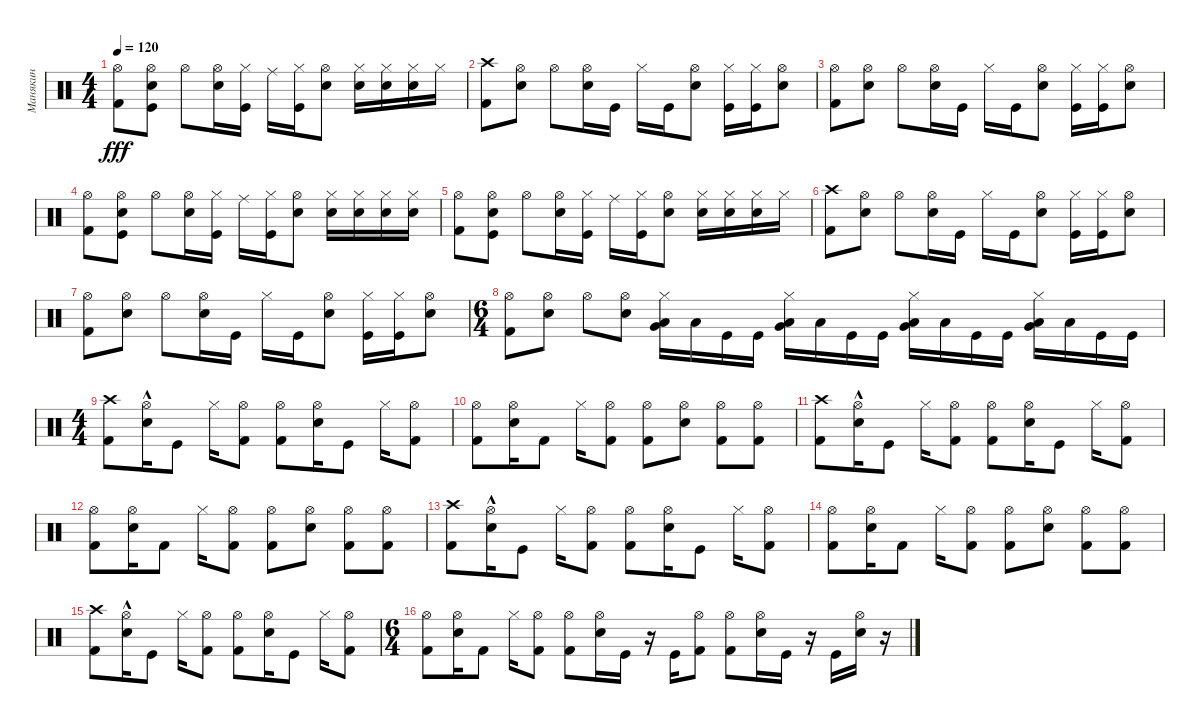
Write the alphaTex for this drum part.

\track ("Манякин" "Манякин") {instrument percussion}
\staff {score}
\articulation defaults
\ts (4 4)
\tempo 120
\clef neutral
\ks c
("Hi-Hat (open)" "Kick (hit) 2").8{dy fff} ("Hi-Hat (open)" "Snare (hit) 2" "Kick (hit)").8 "Hi-Hat (open)".8 ("Snare (hit) 2" "Hi-Hat (open)").16 ("Hi-Hat (closed)" "Kick (hit)").16 "Ride (middle)".16 ("Hi-Hat (closed)" "Kick (hit)").16 ("Hi-Hat (open)" "Snare (hit) 2").8 ("Hi-Hat (closed)" "Snare (hit) 2").16 ("Hi-Hat (closed)" "Snare (hit) 2").16 ("Hi-Hat (closed)" "Snare (hit) 2").16 "Hi-Hat (closed)".16 |
("Crash high (hit)" "Kick (hit) 2").8 ("Hi-Hat (open)" "Snare (hit) 2").8 "Hi-Hat (open)".8 ("Hi-Hat (open)" "Snare (hit) 2").16 "Kick (hit)".16 "Hi-Hat (closed)".16 "Kick (hit)".16 ("Hi-Hat (open)" "Snare (hit) 2").8 ("Hi-Hat (closed)" "Kick (hit)").16 ("Hi-Hat (closed)" "Kick (hit)").16 ("Hi-Hat (open)" "Snare (hit) 2").8 |
("Hi-Hat (open)" "Kick (hit) 2").8 ("Hi-Hat (open)" "Snare (hit) 2").8 "Hi-Hat (open)".8 ("Hi-Hat (open)" "Snare (hit) 2").16 "Kick (hit)".16 "Hi-Hat (closed)".16 "Kick (hit)".16 ("Hi-Hat (open)" "Snare (hit) 2").8 ("Hi-Hat (closed)" "Kick (hit)").16 ("Hi-Hat (closed)" "Kick (hit)").16 ("Hi-Hat (open)" "Snare (hit) 2").8 |
("Hi-Hat (open)" "Kick (hit) 2").8 ("Hi-Hat (open)" "Snare (hit) 2" "Kick (hit)").8 "Hi-Hat (open)".8 ("Snare (hit) 2" "Hi-Hat (open)").16 ("Hi-Hat (closed)" "Kick (hit)").16 "Ride (middle)".16 ("Hi-Hat (closed)" "Kick (hit)").16 ("Hi-Hat (open)" "Snare (hit) 2").8 ("Hi-Hat (closed)" "Snare (hit) 2").16 ("Hi-Hat (closed)" "Snare (hit) 2").16 ("Hi-Hat (closed)" "Snare (hit) 2").16 ("Hi-Hat (closed)" "Snare (hit) 2").16 |
("Hi-Hat (open)" "Kick (hit) 2").8 ("Hi-Hat (open)" "Snare (hit) 2" "Kick (hit)").8 "Hi-Hat (open)".8 ("Snare (hit) 2" "Hi-Hat (open)").16 ("Hi-Hat (closed)" "Kick (hit)").16 "Ride (middle)".16 ("Hi-Hat (closed)" "Kick (hit)").16 ("Hi-Hat (open)" "Snare (hit) 2").8 ("Hi-Hat (closed)" "Snare (hit) 2").16 ("Hi-Hat (closed)" "Snare (hit) 2").16 ("Hi-Hat (closed)" "Snare (hit) 2").16 "Hi-Hat (closed)".16 |
("Crash high (hit)" "Kick (hit) 2").8 ("Hi-Hat (open)" "Snare (hit) 2").8 "Hi-Hat (open)".8 ("Hi-Hat (open)" "Snare (hit) 2").16 "Kick (hit)".16 "Hi-Hat (closed)".16 "Kick (hit)".16 ("Hi-Hat (open)" "Snare (hit) 2").8 ("Hi-Hat (closed)" "Kick (hit)").16 ("Hi-Hat (closed)" "Kick (hit)").16 ("Hi-Hat (open)" "Snare (hit) 2").8 |
("Hi-Hat (open)" "Kick (hit) 2").8 ("Hi-Hat (open)" "Snare (hit) 2").8 "Hi-Hat (open)".8 ("Hi-Hat (open)" "Snare (hit) 2").16 "Kick (hit)".16 "Hi-Hat (closed)".16 "Kick (hit)".16 ("Hi-Hat (open)" "Snare (hit) 2").8 ("Hi-Hat (closed)" "Kick (hit)").16 ("Hi-Hat (closed)" "Kick (hit)").16 ("Hi-Hat (open)" "Snare (hit) 2").8 |
\ts (6 4)
("Hi-Hat (open)" "Kick (hit) 2").8 ("Hi-Hat (open)" "Snare (hit) 2").8 "Hi-Hat (open)".8 ("Hi-Hat (open)" "Snare (hit) 2").8 ("Hi-Hat (closed)" "Low Floor Tom (hit)" "Very Low Tom (hit)").16 "Low Floor Tom (hit)".16 "Kick (hit)".16 "Kick (hit)".16 ("Hi-Hat (closed)" "Low Floor Tom (hit)" "Very Low Tom (hit)").16 "Low Floor Tom (hit)".16 "Kick (hit)".16 "Kick (hit)".16 ("Hi-Hat (closed)" "Low Tom (hit)" "Very Low Tom (hit)").16 "Low Floor Tom (hit)".16 "Kick (hit)".16 "Kick (hit)".16 ("Hi-Hat (closed)" "Very Low Tom (hit)" "Low Tom (hit)").16 "Low Floor Tom (hit)".16 "Kick (hit)".16 "Kick (hit)".16 |
\ts (4 4)
("Crash high (hit)" "Kick (hit) 2").8 ("Hi-Hat (open)"{hac} "Snare (hit) 2").16 "Kick (hit)".8 "Hi-Hat (closed)".16 ("Hi-Hat (open)" "Kick (hit) 2").8 ("Hi-Hat (open)" "Kick (hit) 2").8 ("Hi-Hat (open)" "Snare (hit) 2").16 "Kick (hit)".8 "Hi-Hat (closed)".16 ("Kick (hit) 2" "Hi-Hat (open)").8 |
("Hi-Hat (open)" "Kick (hit) 2").8 ("Hi-Hat (open)" "Snare (hit) 2").16 "Kick (hit) 2".8 "Hi-Hat (closed)".16 ("Hi-Hat (open)" "Kick (hit) 2").8 ("Kick (hit) 2" "Hi-Hat (open)").8 ("Hi-Hat (open)" "Snare (hit) 2").8 ("Hi-Hat (open)" "Kick (hit) 2").8 ("Hi-Hat (open)" "Kick (hit) 2").8 |
("Crash high (hit)" "Kick (hit) 2").8 ("Hi-Hat (open)"{hac} "Snare (hit) 2").16 "Kick (hit)".8 "Hi-Hat (closed)".16 ("Hi-Hat (open)" "Kick (hit) 2").8 ("Hi-Hat (open)" "Kick (hit) 2").8 ("Hi-Hat (open)" "Snare (hit) 2").16 "Kick (hit)".8 "Hi-Hat (closed)".16 ("Kick (hit) 2" "Hi-Hat (open)").8 |
("Hi-Hat (open)" "Kick (hit) 2").8 ("Hi-Hat (open)" "Snare (hit) 2").16 "Kick (hit) 2".8 "Hi-Hat (closed)".16 ("Hi-Hat (open)" "Kick (hit) 2").8 ("Kick (hit) 2" "Hi-Hat (open)").8 ("Hi-Hat (open)" "Snare (hit) 2").8 ("Hi-Hat (open)" "Kick (hit) 2").8 ("Hi-Hat (open)" "Kick (hit) 2").8 |
("Crash high (hit)" "Kick (hit) 2").8 ("Hi-Hat (open)"{hac} "Snare (hit) 2").16 "Kick (hit)".8 "Hi-Hat (closed)".16 ("Hi-Hat (open)" "Kick (hit) 2").8 ("Hi-Hat (open)" "Kick (hit) 2").8 ("Hi-Hat (open)" "Snare (hit) 2").16 "Kick (hit)".8 "Hi-Hat (closed)".16 ("Kick (hit) 2" "Hi-Hat (open)").8 |
("Hi-Hat (open)" "Kick (hit) 2").8 ("Hi-Hat (open)" "Snare (hit) 2").16 "Kick (hit) 2".8 "Hi-Hat (closed)".16 ("Hi-Hat (open)" "Kick (hit) 2").8 ("Kick (hit) 2" "Hi-Hat (open)").8 ("Hi-Hat (open)" "Snare (hit) 2").8 ("Hi-Hat (open)" "Kick (hit) 2").8 ("Hi-Hat (open)" "Kick (hit) 2").8 |
("Crash high (hit)" "Kick (hit) 2").8 ("Hi-Hat (open)"{hac} "Snare (hit) 2").16 "Kick (hit)".8 "Hi-Hat (closed)".16 ("Hi-Hat (open)" "Kick (hit) 2").8 ("Hi-Hat (open)" "Kick (hit) 2").8 ("Hi-Hat (open)" "Snare (hit) 2").16 "Kick (hit)".8 "Hi-Hat (closed)".16 ("Kick (hit) 2" "Hi-Hat (open)").8 |
\ts (6 4)
("Hi-Hat (open)" "Kick (hit) 2").8 ("Hi-Hat (open)" "Snare (hit) 2").16 "Kick (hit) 2".8 "Hi-Hat (closed)".16 ("Hi-Hat (open)" "Kick (hit) 2").8 ("Kick (hit) 2" "Hi-Hat (open)").8 ("Hi-Hat (open)" "Snare (hit) 2").16 "Kick (hit)".16 r.16 "Kick (hit)".16 ("Hi-Hat (open)" "Kick (hit) 2").8 ("Hi-Hat (open)" "Kick (hit) 2").8 ("Hi-Hat (open)" "Snare (hit) 2").16 "Kick (hit)".16 r.16 "Kick (hit)".16 ("Hi-Hat (open)" "Snare (hit) 2").16 r.16
